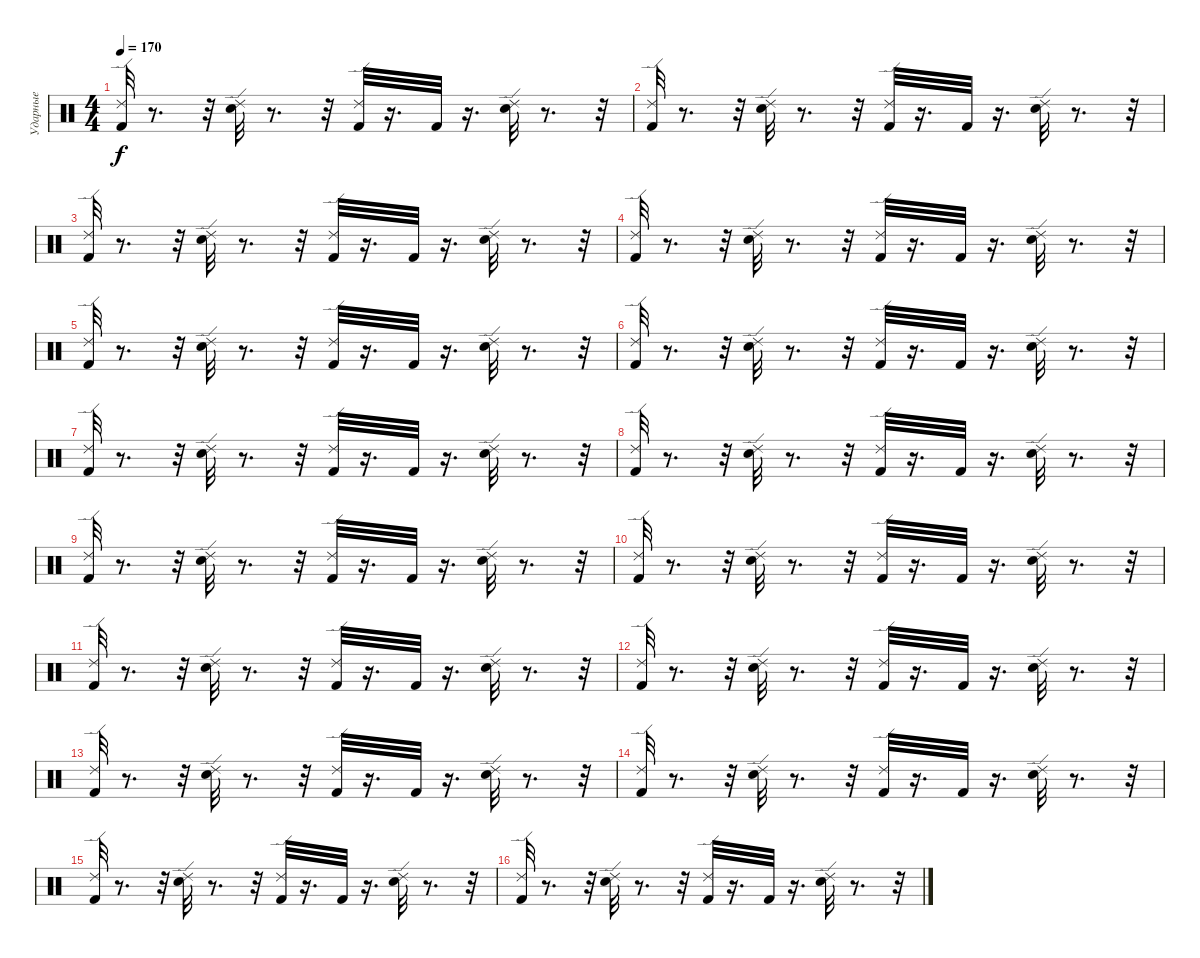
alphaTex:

\track ("Ударные" "Ударные") {instrument percussion}
\staff {score}
\articulation defaults
\ts (4 4)
\tempo 170
\clef neutral
\ks c
("Ride (edge) 2" "Kick (hit) 2").32{dy f} r.8{d} r.32 ("Ride (edge) 2" "Electric Snare (hit)").32 r.8{d} r.32 ("Ride (edge) 2" "Kick (hit) 2").32 r.16{d} "Kick (hit) 2".32 r.16{d} ("Ride (edge) 2" "Electric Snare (hit)").32 r.8{d} r.32 |
("Ride (edge) 2" "Kick (hit) 2").32 r.8{d} r.32 ("Ride (edge) 2" "Electric Snare (hit)").32 r.8{d} r.32 ("Ride (edge) 2" "Kick (hit) 2").32 r.16{d} "Kick (hit) 2".32 r.16{d} ("Ride (edge) 2" "Electric Snare (hit)").32 r.8{d} r.32 |
("Ride (edge) 2" "Kick (hit) 2").32 r.8{d} r.32 ("Ride (edge) 2" "Electric Snare (hit)").32 r.8{d} r.32 ("Ride (edge) 2" "Kick (hit) 2").32 r.16{d} "Kick (hit) 2".32 r.16{d} ("Ride (edge) 2" "Electric Snare (hit)").32 r.8{d} r.32 |
("Ride (edge) 2" "Kick (hit) 2").32 r.8{d} r.32 ("Ride (edge) 2" "Electric Snare (hit)").32 r.8{d} r.32 ("Ride (edge) 2" "Kick (hit) 2").32 r.16{d} "Kick (hit) 2".32 r.16{d} ("Ride (edge) 2" "Electric Snare (hit)").32 r.8{d} r.32 |
("Ride (edge) 2" "Kick (hit) 2").32 r.8{d} r.32 ("Ride (edge) 2" "Electric Snare (hit)").32 r.8{d} r.32 ("Ride (edge) 2" "Kick (hit) 2").32 r.16{d} "Kick (hit) 2".32 r.16{d} ("Ride (edge) 2" "Electric Snare (hit)").32 r.8{d} r.32 |
("Ride (edge) 2" "Kick (hit) 2").32 r.8{d} r.32 ("Ride (edge) 2" "Electric Snare (hit)").32 r.8{d} r.32 ("Ride (edge) 2" "Kick (hit) 2").32 r.16{d} "Kick (hit) 2".32 r.16{d} ("Ride (edge) 2" "Electric Snare (hit)").32 r.8{d} r.32 |
("Ride (edge) 2" "Kick (hit) 2").32 r.8{d} r.32 ("Ride (edge) 2" "Electric Snare (hit)").32 r.8{d} r.32 ("Ride (edge) 2" "Kick (hit) 2").32 r.16{d} "Kick (hit) 2".32 r.16{d} ("Ride (edge) 2" "Electric Snare (hit)").32 r.8{d} r.32 |
("Ride (edge) 2" "Kick (hit) 2").32 r.8{d} r.32 ("Ride (edge) 2" "Electric Snare (hit)").32 r.8{d} r.32 ("Ride (edge) 2" "Kick (hit) 2").32 r.16{d} "Kick (hit) 2".32 r.16{d} ("Ride (edge) 2" "Electric Snare (hit)").32 r.8{d} r.32 |
("Ride (edge) 2" "Kick (hit) 2").32 r.8{d} r.32 ("Ride (edge) 2" "Electric Snare (hit)").32 r.8{d} r.32 ("Ride (edge) 2" "Kick (hit) 2").32 r.16{d} "Kick (hit) 2".32 r.16{d} ("Ride (edge) 2" "Electric Snare (hit)").32 r.8{d} r.32 |
("Ride (edge) 2" "Kick (hit) 2").32 r.8{d} r.32 ("Ride (edge) 2" "Electric Snare (hit)").32 r.8{d} r.32 ("Ride (edge) 2" "Kick (hit) 2").32 r.16{d} "Kick (hit) 2".32 r.16{d} ("Ride (edge) 2" "Electric Snare (hit)").32 r.8{d} r.32 |
("Ride (edge) 2" "Kick (hit) 2").32 r.8{d} r.32 ("Ride (edge) 2" "Electric Snare (hit)").32 r.8{d} r.32 ("Ride (edge) 2" "Kick (hit) 2").32 r.16{d} "Kick (hit) 2".32 r.16{d} ("Ride (edge) 2" "Electric Snare (hit)").32 r.8{d} r.32 |
("Ride (edge) 2" "Kick (hit) 2").32 r.8{d} r.32 ("Ride (edge) 2" "Electric Snare (hit)").32 r.8{d} r.32 ("Ride (edge) 2" "Kick (hit) 2").32 r.16{d} "Kick (hit) 2".32 r.16{d} ("Ride (edge) 2" "Electric Snare (hit)").32 r.8{d} r.32 |
("Ride (edge) 2" "Kick (hit) 2").32 r.8{d} r.32 ("Ride (edge) 2" "Electric Snare (hit)").32 r.8{d} r.32 ("Ride (edge) 2" "Kick (hit) 2").32 r.16{d} "Kick (hit) 2".32 r.16{d} ("Ride (edge) 2" "Electric Snare (hit)").32 r.8{d} r.32 |
("Ride (edge) 2" "Kick (hit) 2").32 r.8{d} r.32 ("Ride (edge) 2" "Electric Snare (hit)").32 r.8{d} r.32 ("Ride (edge) 2" "Kick (hit) 2").32 r.16{d} "Kick (hit) 2".32 r.16{d} ("Ride (edge) 2" "Electric Snare (hit)").32 r.8{d} r.32 |
("Ride (edge) 2" "Kick (hit) 2").32 r.8{d} r.32 ("Ride (edge) 2" "Electric Snare (hit)").32 r.8{d} r.32 ("Ride (edge) 2" "Kick (hit) 2").32 r.16{d} "Kick (hit) 2".32 r.16{d} ("Ride (edge) 2" "Electric Snare (hit)").32 r.8{d} r.32 |
("Ride (edge) 2" "Kick (hit) 2").32 r.8{d} r.32 ("Ride (edge) 2" "Electric Snare (hit)").32 r.8{d} r.32 ("Ride (edge) 2" "Kick (hit) 2").32 r.16{d} "Kick (hit) 2".32 r.16{d} ("Ride (edge) 2" "Electric Snare (hit)").32 r.8{d} r.32
